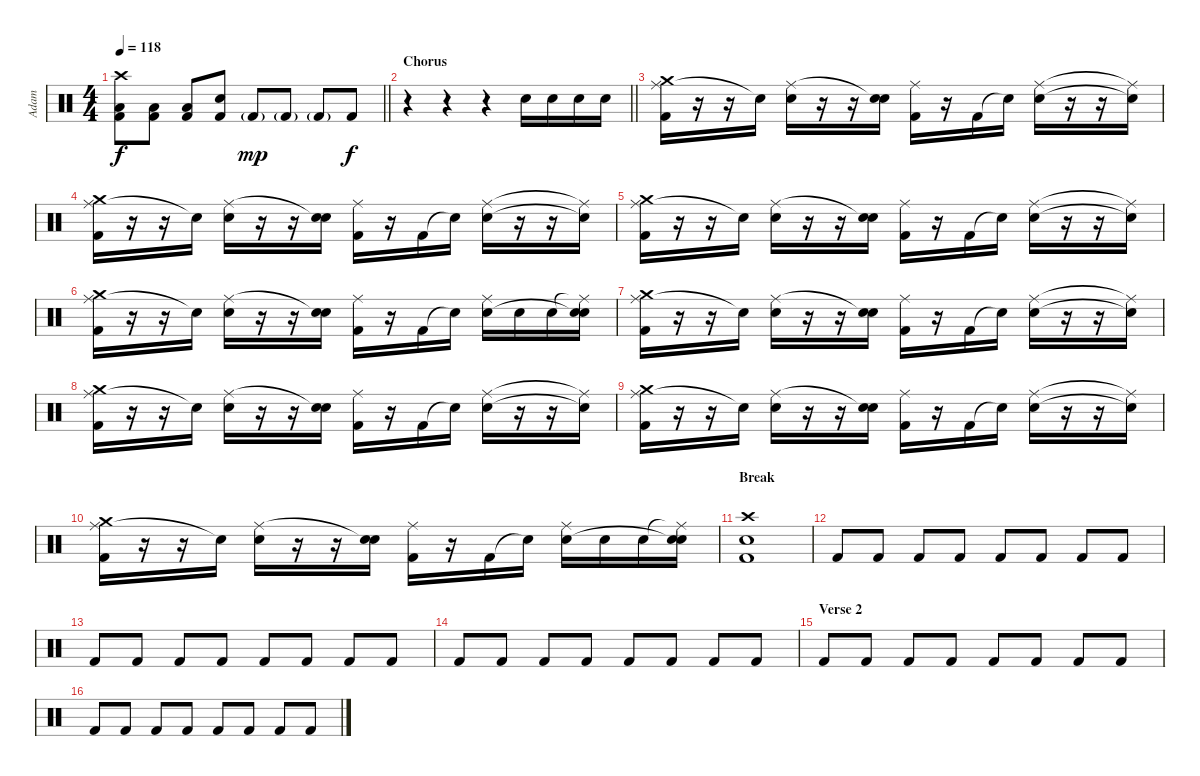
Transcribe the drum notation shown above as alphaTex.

\track ("Adam" "Adam") {instrument percussion}
\staff {score}
\articulation defaults
\ts (4 4)
\tempo 118
\clef neutral
\barLineRight lightlight
\ks c
("Kick (hit) 2" "Low Floor Tom (hit)" "Crash high (hit)").8{dy f} ("Kick (hit) 2" "Low Floor Tom (hit)").8 ("Kick (hit) 2" "Low Floor Tom (hit)").8 ("Kick (hit) 2" "Electric Snare (hit)").8 "Kick (hit) 2"{g}.8{dy mp} "Kick (hit) 2"{g}.8 "Kick (hit) 2"{g}.8 "Kick (hit) 2".8{dy f} |
\section ("" "Chorus")
\barLineRight lightlight
r.4 r.4 r.4 "Electric Snare (hit)".16 "Electric Snare (hit)".16 "Electric Snare (hit)".16 "Electric Snare (hit)".16 |
("Ride (middle)" "Crash medium (hit)" "Kick (hit) 2").16 r.16 r.16 "Snare (hit)"{t}.16 ("Ride (middle)" "Snare (hit) 2").16 r.16 r.16 ("Snare (hit)"{t} "Snare (hit) 2").16 ("Ride (middle)" "Kick (hit) 2").16 r.16 "Kick (hit) 2".16 "Snare (hit)"{t}.16 ("Ride (middle)" "Snare (hit) 2").16 r.16 r.16 ("Ride (middle)"{t} "Snare (hit)"{t}).16 |
("Ride (middle)" "Crash medium (hit)" "Kick (hit) 2").16 r.16 r.16 "Snare (hit)"{t}.16 ("Ride (middle)" "Snare (hit) 2").16 r.16 r.16 ("Snare (hit)"{t} "Snare (hit) 2").16 ("Ride (middle)" "Kick (hit) 2").16 r.16 "Kick (hit) 2".16 "Snare (hit)"{t}.16 ("Ride (middle)" "Snare (hit) 2").16 r.16 r.16 ("Ride (middle)"{t} "Snare (hit)"{t}).16 |
("Ride (middle)" "Crash medium (hit)" "Kick (hit) 2").16 r.16 r.16 "Snare (hit)"{t}.16 ("Ride (middle)" "Snare (hit) 2").16 r.16 r.16 ("Snare (hit)"{t} "Snare (hit) 2").16 ("Ride (middle)" "Kick (hit) 2").16 r.16 "Kick (hit) 2".16 "Snare (hit)"{t}.16 ("Ride (middle)" "Snare (hit) 2").16 r.16 r.16 ("Ride (middle)"{t} "Snare (hit)"{t}).16 |
("Ride (middle)" "Crash medium (hit)" "Kick (hit) 2").16 r.16 r.16 "Snare (hit)"{t}.16 ("Ride (middle)" "Snare (hit) 2").16 r.16 r.16 ("Snare (hit)"{t} "Snare (hit) 2").16 ("Ride (middle)" "Kick (hit) 2").16 r.16 "Kick (hit) 2".16 "Snare (hit)"{t}.16 ("Ride (middle)" "Snare (hit) 2").16 "Snare (hit) 2".16 "Snare (hit) 2".16 ("Ride (middle)"{t} "Snare (hit)"{t} "Snare (hit) 2").16 |
("Ride (middle)" "Crash medium (hit)" "Kick (hit) 2").16 r.16 r.16 "Snare (hit)"{t}.16 ("Ride (middle)" "Snare (hit) 2").16 r.16 r.16 ("Snare (hit)"{t} "Snare (hit) 2").16 ("Ride (middle)" "Kick (hit) 2").16 r.16 "Kick (hit) 2".16 "Snare (hit)"{t}.16 ("Ride (middle)" "Snare (hit) 2").16 r.16 r.16 ("Ride (middle)"{t} "Snare (hit)"{t}).16 |
("Ride (middle)" "Crash medium (hit)" "Kick (hit) 2").16 r.16 r.16 "Snare (hit)"{t}.16 ("Ride (middle)" "Snare (hit) 2").16 r.16 r.16 ("Snare (hit)"{t} "Snare (hit) 2").16 ("Ride (middle)" "Kick (hit) 2").16 r.16 "Kick (hit) 2".16 "Snare (hit)"{t}.16 ("Ride (middle)" "Snare (hit) 2").16 r.16 r.16 ("Ride (middle)"{t} "Snare (hit)"{t}).16 |
("Ride (middle)" "Crash medium (hit)" "Kick (hit) 2").16 r.16 r.16 "Snare (hit)"{t}.16 ("Ride (middle)" "Snare (hit) 2").16 r.16 r.16 ("Snare (hit)"{t} "Snare (hit) 2").16 ("Ride (middle)" "Kick (hit) 2").16 r.16 "Kick (hit) 2".16 "Snare (hit)"{t}.16 ("Ride (middle)" "Snare (hit) 2").16 r.16 r.16 ("Ride (middle)"{t} "Snare (hit)"{t}).16 |
("Ride (middle)" "Crash medium (hit)" "Kick (hit) 2").16 r.16 r.16 "Snare (hit)"{t}.16 ("Ride (middle)" "Snare (hit) 2").16 r.16 r.16 ("Snare (hit)"{t} "Snare (hit) 2").16 ("Ride (middle)" "Kick (hit) 2").16 r.16 "Kick (hit) 2".16 "Snare (hit)"{t}.16 ("Ride (middle)" "Snare (hit) 2").16 "Snare (hit) 2".16 "Snare (hit) 2".16 ("Ride (middle)"{t} "Snare (hit)"{t} "Snare (hit) 2").16 |
\section ("" "Break")
("Crash high (hit)" "Kick (hit) 2" "Electric Snare (hit)").1 |
"Kick (hit) 2".8 "Kick (hit) 2".8 "Kick (hit) 2".8 "Kick (hit) 2".8 "Kick (hit) 2".8 "Kick (hit) 2".8 "Kick (hit) 2".8 "Kick (hit) 2".8 |
"Kick (hit) 2".8 "Kick (hit) 2".8 "Kick (hit) 2".8 "Kick (hit) 2".8 "Kick (hit) 2".8 "Kick (hit) 2".8 "Kick (hit) 2".8 "Kick (hit) 2".8 |
"Kick (hit) 2".8 "Kick (hit) 2".8 "Kick (hit) 2".8 "Kick (hit) 2".8 "Kick (hit) 2".8 "Kick (hit) 2".8 "Kick (hit) 2".8 "Kick (hit) 2".8 |
\section ("" "Verse 2")
"Kick (hit) 2".8 "Kick (hit) 2".8 "Kick (hit) 2".8 "Kick (hit) 2".8 "Kick (hit) 2".8 "Kick (hit) 2".8 "Kick (hit) 2".8 "Kick (hit) 2".8 |
"Kick (hit) 2".8 "Kick (hit) 2".8 "Kick (hit) 2".8 "Kick (hit) 2".8 "Kick (hit) 2".8 "Kick (hit) 2".8 "Kick (hit) 2".8 "Kick (hit) 2".8
